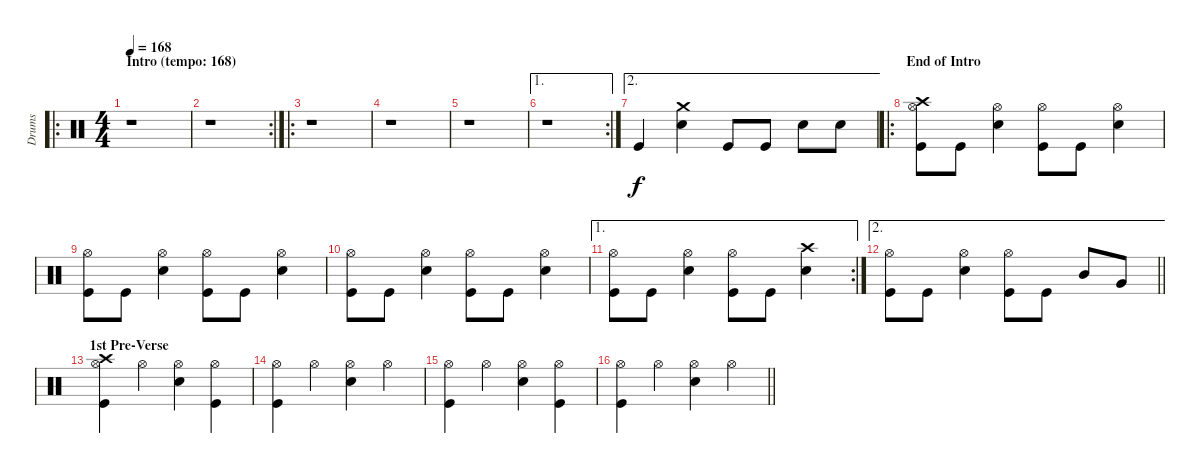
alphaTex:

\track ("Drums" "Drums") {instrument percussion}
\staff {score}
\articulation defaults
\ro
\ts (4 4)
\section ("" "Intro (tempo: 168)")
\tempo 168
\clef neutral
\ks c
r.1{dy f} |
\rc 2
r.1 |
\ro
r.1 |
r.1 |
r.1 |
\ae 1
\rc 2
r.1 |
\ae 2 "Kick (hit)".4
("Crash medium (hit)" "Snare (hit) 2").4 "Kick (hit)".8 "Kick (hit)".8 "Snare (hit) 2".8 "Snare (hit) 2".8 |
\ro
\section ("" "End of Intro")
("Crash high (hit)" "Hi-Hat (open)" "Kick (hit)").8 "Kick (hit)".8 ("Hi-Hat (open)" "Snare (hit) 2").4 ("Hi-Hat (open)" "Kick (hit)").8 "Kick (hit)".8 ("Hi-Hat (open)" "Snare (hit) 2").4 |
("Hi-Hat (open)" "Kick (hit)").8 "Kick (hit)".8 ("Hi-Hat (open)" "Snare (hit) 2").4 ("Hi-Hat (open)" "Kick (hit)").8 "Kick (hit)".8 ("Hi-Hat (open)" "Snare (hit) 2").4 |
("Hi-Hat (open)" "Kick (hit)").8 "Kick (hit)".8 ("Hi-Hat (open)" "Snare (hit) 2").4 ("Hi-Hat (open)" "Kick (hit)").8 "Kick (hit)".8 ("Hi-Hat (open)" "Snare (hit) 2").4 |
\ae 1
\rc 2
("Hi-Hat (open)" "Kick (hit)").8 "Kick (hit)".8 ("Hi-Hat (open)" "Snare (hit) 2").4 ("Hi-Hat (open)" "Kick (hit)").8 "Kick (hit)".8 ("Crash high (hit)" "Snare (hit) 2").4 |
\ae 2
\barLineRight lightlight
("Hi-Hat (open)" "Kick (hit)").8 "Kick (hit)".8 ("Hi-Hat (open)" "Snare (hit) 2").4 ("Hi-Hat (open)" "Kick (hit)").8 "Kick (hit)".8 "Mid Tom (hit)".8 "Very Low Tom (hit)".8 |
\section ("" "1st Pre-Verse")
("Crash high (hit)" "Hi-Hat (open)" "Kick (hit)").4 "Hi-Hat (open)".4 ("Hi-Hat (open)" "Snare (hit) 2").4 ("Hi-Hat (open)" "Kick (hit)").4 |
("Hi-Hat (open)" "Kick (hit)").4 "Hi-Hat (open)".4 ("Hi-Hat (open)" "Snare (hit) 2").4 "Hi-Hat (open)".4 |
("Hi-Hat (open)" "Kick (hit)").4 "Hi-Hat (open)".4 ("Hi-Hat (open)" "Snare (hit) 2").4 ("Hi-Hat (open)" "Kick (hit)").4 |
\barLineRight lightlight
("Hi-Hat (open)" "Kick (hit)").4 "Hi-Hat (open)".4 ("Hi-Hat (open)" "Snare (hit) 2").4 "Hi-Hat (open)".4
